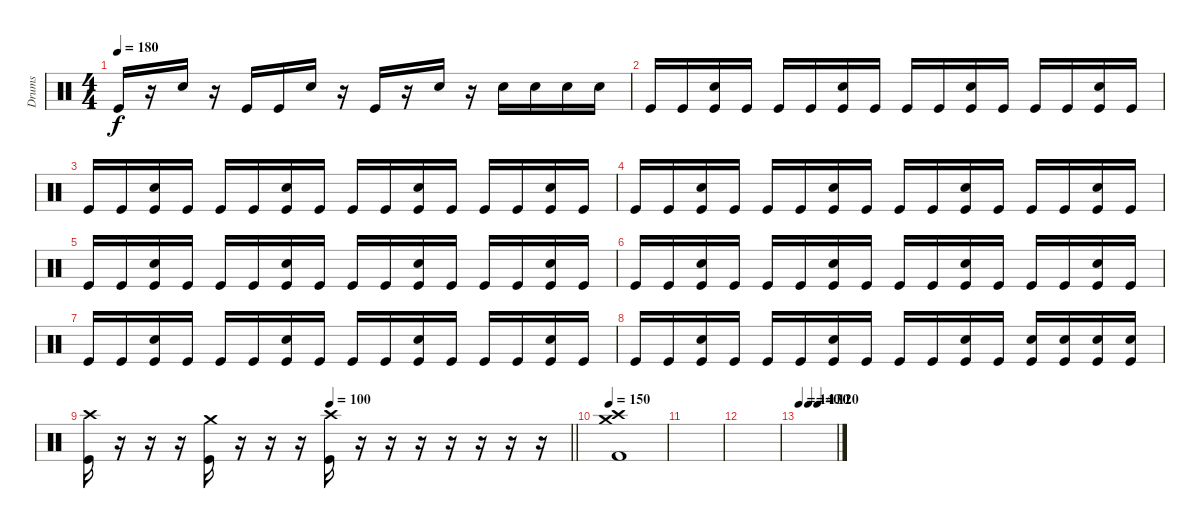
\track ("Drums" "Drums") {instrument percussion}
\staff
\articulation defaults
\ts (4 4)
\tempo 180
\clef neutral
\ks c "Kick (hit)".16{dy f}
r.16 "Snare (hit) 2".16 r.16 "Kick (hit)".16 "Kick (hit)".16 "Snare (hit) 2".16 r.16 "Kick (hit)".16 r.16 "Snare (hit) 2".16 r.16 "Snare (hit) 2".16 "Snare (hit) 2".16 "Snare (hit) 2".16 "Snare (hit) 2".16 |
"Kick (hit)".16 "Kick (hit)".16 ("Snare (hit) 2" "Kick (hit)").16 "Kick (hit)".16 "Kick (hit)".16 "Kick (hit)".16 ("Snare (hit) 2" "Kick (hit)").16 "Kick (hit)".16 "Kick (hit)".16 "Kick (hit)".16 ("Snare (hit) 2" "Kick (hit)").16 "Kick (hit)".16 "Kick (hit)".16 "Kick (hit)".16 ("Snare (hit) 2" "Kick (hit)").16 "Kick (hit)".16 |
"Kick (hit)".16 "Kick (hit)".16 ("Snare (hit) 2" "Kick (hit)").16 "Kick (hit)".16 "Kick (hit)".16 "Kick (hit)".16 ("Snare (hit) 2" "Kick (hit)").16 "Kick (hit)".16 "Kick (hit)".16 "Kick (hit)".16 ("Snare (hit) 2" "Kick (hit)").16 "Kick (hit)".16 "Kick (hit)".16 "Kick (hit)".16 ("Snare (hit) 2" "Kick (hit)").16 "Kick (hit)".16 |
"Kick (hit)".16 "Kick (hit)".16 ("Snare (hit) 2" "Kick (hit)").16 "Kick (hit)".16 "Kick (hit)".16 "Kick (hit)".16 ("Snare (hit) 2" "Kick (hit)").16 "Kick (hit)".16 "Kick (hit)".16 "Kick (hit)".16 ("Snare (hit) 2" "Kick (hit)").16 "Kick (hit)".16 "Kick (hit)".16 "Kick (hit)".16 ("Snare (hit) 2" "Kick (hit)").16 "Kick (hit)".16 |
"Kick (hit)".16 "Kick (hit)".16 ("Snare (hit) 2" "Kick (hit)").16 "Kick (hit)".16 "Kick (hit)".16 "Kick (hit)".16 ("Snare (hit) 2" "Kick (hit)").16 "Kick (hit)".16 "Kick (hit)".16 "Kick (hit)".16 ("Snare (hit) 2" "Kick (hit)").16 "Kick (hit)".16 "Kick (hit)".16 "Kick (hit)".16 ("Snare (hit) 2" "Kick (hit)").16 "Kick (hit)".16 |
"Kick (hit)".16 "Kick (hit)".16 ("Snare (hit) 2" "Kick (hit)").16 "Kick (hit)".16 "Kick (hit)".16 "Kick (hit)".16 ("Snare (hit) 2" "Kick (hit)").16 "Kick (hit)".16 "Kick (hit)".16 "Kick (hit)".16 ("Snare (hit) 2" "Kick (hit)").16 "Kick (hit)".16 "Kick (hit)".16 "Kick (hit)".16 ("Snare (hit) 2" "Kick (hit)").16 "Kick (hit)".16 |
"Kick (hit)".16 "Kick (hit)".16 ("Snare (hit) 2" "Kick (hit)").16 "Kick (hit)".16 "Kick (hit)".16 "Kick (hit)".16 ("Snare (hit) 2" "Kick (hit)").16 "Kick (hit)".16 "Kick (hit)".16 "Kick (hit)".16 ("Snare (hit) 2" "Kick (hit)").16 "Kick (hit)".16 "Kick (hit)".16 "Kick (hit)".16 ("Snare (hit) 2" "Kick (hit)").16 "Kick (hit)".16 |
"Kick (hit)".16 "Kick (hit)".16 ("Snare (hit) 2" "Kick (hit)").16 "Kick (hit)".16 "Kick (hit)".16 "Kick (hit)".16 ("Snare (hit) 2" "Kick (hit)").16 "Kick (hit)".16 "Kick (hit)".16 "Kick (hit)".16 ("Snare (hit) 2" "Kick (hit)").16 "Kick (hit)".16 ("Snare (hit) 2" "Kick (hit)").16 ("Snare (hit) 2" "Kick (hit)").16 ("Snare (hit) 2" "Kick (hit)").16 ("Snare (hit) 2" "Kick (hit)").16 |
\tempo (100 0.5)
\barLineRight lightlight
("Crash high (hit)" "Kick (hit)").16 r.16 r.16 r.16 ("Crash medium (hit)" "Kick (hit)").16 r.16 r.16 r.16 ("Crash high (hit)" "Kick (hit)").16 r.16 r.16 r.16 r.16 r.16 r.16 r.16 |
\tempo 150
("Crash high (hit)" "Crash medium (hit)" "Kick (hit) 2").1 |
|
|
\tempo 140
\tempo (130 0.25)
\tempo (120 0.5)
